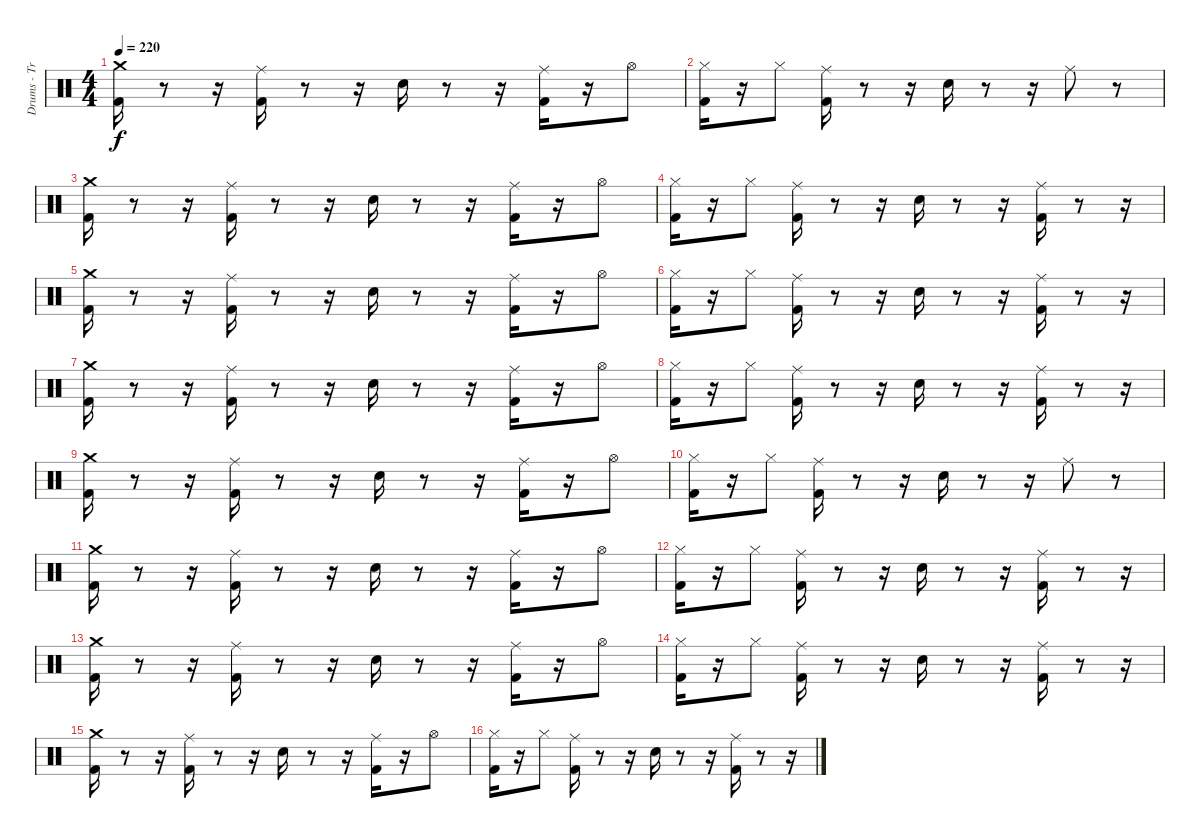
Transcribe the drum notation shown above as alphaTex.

\track ("Drums - Travis Barker" "Drums - Tr") {instrument percussion}
\staff {score}
\articulation defaults
\ts (4 4)
\tempo 220
\clef neutral
\ks c
("Crash medium (hit)" "Kick (hit) 2").16{dy f} r.8 r.16 ("Ride (middle)" "Kick (hit) 2").16 r.8 r.16 "Electric Snare (hit)".16 r.8 r.16 ("Ride (middle)" "Kick (hit) 2").16 r.16 "Hi-Hat (open)".8 |
("Kick (hit) 2" "Hi-Hat (closed)").16 r.16 "Hi-Hat (closed)".8 ("Ride (middle)" "Kick (hit) 2").16 r.8 r.16 "Electric Snare (hit)".16 r.8 r.16 "Ride (middle)".8 r.8 |
("Crash medium (hit)" "Kick (hit) 2").16 r.8 r.16 ("Ride (middle)" "Kick (hit) 2").16 r.8 r.16 "Electric Snare (hit)".16 r.8 r.16 ("Ride (middle)" "Kick (hit) 2").16 r.16 "Hi-Hat (open)".8 |
("Kick (hit) 2" "Hi-Hat (closed)").16 r.16 "Hi-Hat (closed)".8 ("Ride (middle)" "Kick (hit) 2").16 r.8 r.16 "Electric Snare (hit)".16 r.8 r.16 ("Ride (middle)" "Kick (hit) 2").16 r.8 r.16 |
("Crash medium (hit)" "Kick (hit) 2").16 r.8 r.16 ("Ride (middle)" "Kick (hit) 2").16 r.8 r.16 "Electric Snare (hit)".16 r.8 r.16 ("Ride (middle)" "Kick (hit) 2").16 r.16 "Hi-Hat (open)".8 |
("Kick (hit) 2" "Hi-Hat (closed)").16 r.16 "Hi-Hat (closed)".8 ("Ride (middle)" "Kick (hit) 2").16 r.8 r.16 "Electric Snare (hit)".16 r.8 r.16 ("Ride (middle)" "Kick (hit) 2").16 r.8 r.16 |
("Crash medium (hit)" "Kick (hit) 2").16 r.8 r.16 ("Ride (middle)" "Kick (hit) 2").16 r.8 r.16 "Electric Snare (hit)".16 r.8 r.16 ("Ride (middle)" "Kick (hit) 2").16 r.16 "Hi-Hat (open)".8 |
("Kick (hit) 2" "Hi-Hat (closed)").16 r.16 "Hi-Hat (closed)".8 ("Ride (middle)" "Kick (hit) 2").16 r.8 r.16 "Electric Snare (hit)".16 r.8 r.16 ("Ride (middle)" "Kick (hit) 2").16 r.8 r.16 |
("Crash medium (hit)" "Kick (hit) 2").16 r.8 r.16 ("Ride (middle)" "Kick (hit) 2").16 r.8 r.16 "Electric Snare (hit)".16 r.8 r.16 ("Ride (middle)" "Kick (hit) 2").16 r.16 "Hi-Hat (open)".8 |
("Kick (hit) 2" "Hi-Hat (closed)").16 r.16 "Hi-Hat (closed)".8 ("Ride (middle)" "Kick (hit) 2").16 r.8 r.16 "Electric Snare (hit)".16 r.8 r.16 "Ride (middle)".8 r.8 |
("Crash medium (hit)" "Kick (hit) 2").16 r.8 r.16 ("Ride (middle)" "Kick (hit) 2").16 r.8 r.16 "Electric Snare (hit)".16 r.8 r.16 ("Ride (middle)" "Kick (hit) 2").16 r.16 "Hi-Hat (open)".8 |
("Kick (hit) 2" "Hi-Hat (closed)").16 r.16 "Hi-Hat (closed)".8 ("Ride (middle)" "Kick (hit) 2").16 r.8 r.16 "Electric Snare (hit)".16 r.8 r.16 ("Ride (middle)" "Kick (hit) 2").16 r.8 r.16 |
("Crash medium (hit)" "Kick (hit) 2").16 r.8 r.16 ("Ride (middle)" "Kick (hit) 2").16 r.8 r.16 "Electric Snare (hit)".16 r.8 r.16 ("Ride (middle)" "Kick (hit) 2").16 r.16 "Hi-Hat (open)".8 |
("Kick (hit) 2" "Hi-Hat (closed)").16 r.16 "Hi-Hat (closed)".8 ("Ride (middle)" "Kick (hit) 2").16 r.8 r.16 "Electric Snare (hit)".16 r.8 r.16 ("Ride (middle)" "Kick (hit) 2").16 r.8 r.16 |
("Crash medium (hit)" "Kick (hit) 2").16 r.8 r.16 ("Ride (middle)" "Kick (hit) 2").16 r.8 r.16 "Electric Snare (hit)".16 r.8 r.16 ("Ride (middle)" "Kick (hit) 2").16 r.16 "Hi-Hat (open)".8 |
("Kick (hit) 2" "Hi-Hat (closed)").16 r.16 "Hi-Hat (closed)".8 ("Ride (middle)" "Kick (hit) 2").16 r.8 r.16 "Electric Snare (hit)".16 r.8 r.16 ("Ride (middle)" "Kick (hit) 2").16 r.8 r.16
